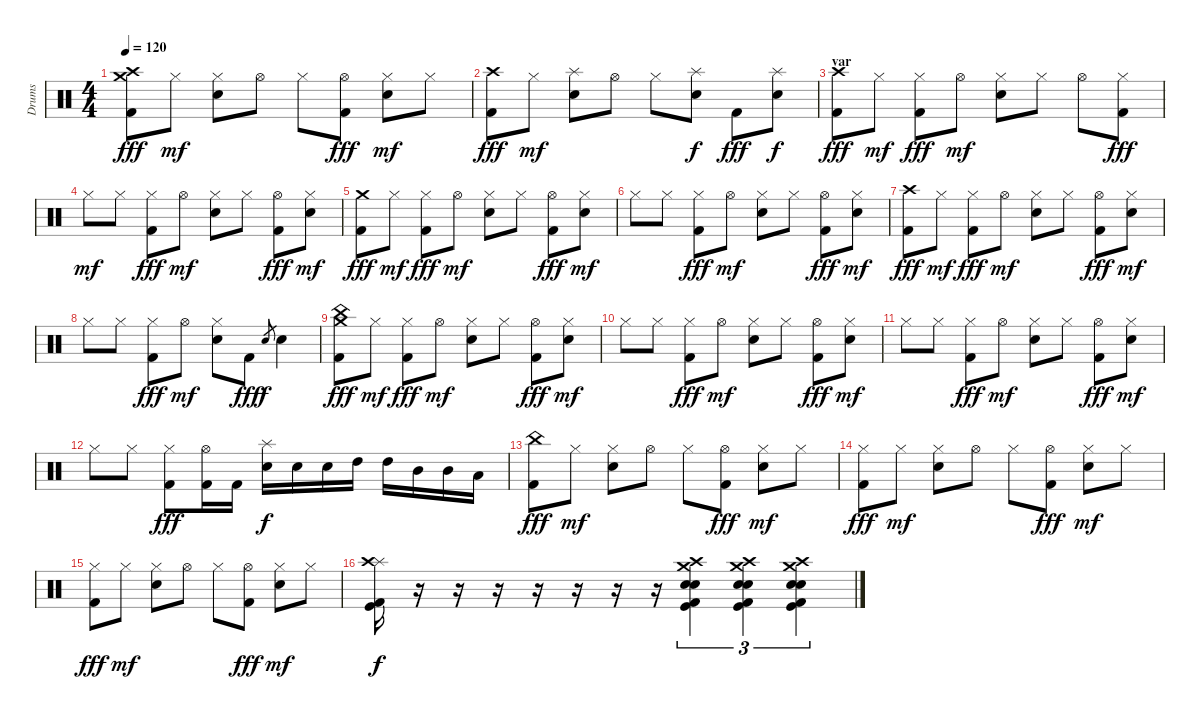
\track ("Drums" "Drums") {instrument percussion}
\staff {score}
\articulation defaults
\ts (4 4)
\tempo 120
\clef neutral
\ks c
("Crash medium (hit)" "Crash high (hit)" "Kick (hit) 2").8{dy fff} "Hi-Hat (closed)".8{dy mf} ("Hi-Hat (closed)" "Electric Snare (hit)").8 "Hi-Hat (open)".8 "Hi-Hat (closed)".8 ("Hi-Hat (open)" "Kick (hit) 2").8{dy fff} ("Hi-Hat (closed)" "Electric Snare (hit)").8{dy mf} "Hi-Hat (closed)".8 |
("Crash high (hit)" "Kick (hit) 2").8{dy fff} "Hi-Hat (closed)".8{dy mf} ("Splash (hit)" "Electric Snare (hit)").8 "Hi-Hat (open)".8 "Hi-Hat (closed)".8 ("Splash (hit)" "Electric Snare (hit)").8{dy f} "Kick (hit) 2".8{dy fff} ("Splash (hit)" "Electric Snare (hit)").8{dy f} |
\section ("" "var")
("Crash high (hit)" "Kick (hit) 2").8{dy fff} "Hi-Hat (closed)".8{dy mf} ("Hi-Hat (closed)" "Kick (hit) 2").8{dy fff} "Hi-Hat (open)".8{dy mf} ("Hi-Hat (closed)" "Electric Snare (hit)").8 "Hi-Hat (closed)".8 "Hi-Hat (open)".8 ("Hi-Hat (closed)" "Kick (hit) 2").8{dy fff} |
"Hi-Hat (closed)".8{dy mf} "Hi-Hat (closed)".8 ("Hi-Hat (closed)" "Kick (hit) 2").8{dy fff} "Hi-Hat (open)".8{dy mf} ("Hi-Hat (closed)" "Electric Snare (hit)").8 "Hi-Hat (closed)".8 ("Hi-Hat (open)" "Kick (hit) 2").8{dy fff} ("Hi-Hat (closed)" "Electric Snare (hit)").8{dy mf} |
("Crash medium (hit)" "Kick (hit) 2").8{dy fff} "Hi-Hat (closed)".8{dy mf} ("Hi-Hat (closed)" "Kick (hit) 2").8{dy fff} "Hi-Hat (open)".8{dy mf} ("Hi-Hat (closed)" "Electric Snare (hit)").8 "Hi-Hat (closed)".8 ("Hi-Hat (open)" "Kick (hit) 2").8{dy fff} ("Hi-Hat (closed)" "Electric Snare (hit)").8{dy mf} |
"Hi-Hat (closed)".8 "Hi-Hat (closed)".8 ("Hi-Hat (closed)" "Kick (hit) 2").8{dy fff} "Hi-Hat (open)".8{dy mf} ("Hi-Hat (closed)" "Electric Snare (hit)").8 "Hi-Hat (closed)".8 ("Hi-Hat (open)" "Kick (hit) 2").8{dy fff} ("Hi-Hat (closed)" "Electric Snare (hit)").8{dy mf} |
("Crash high (hit)" "Kick (hit) 2").8{dy fff} "Hi-Hat (closed)".8{dy mf} ("Hi-Hat (closed)" "Kick (hit) 2").8{dy fff} "Hi-Hat (open)".8{dy mf} ("Hi-Hat (closed)" "Electric Snare (hit)").8 "Hi-Hat (closed)".8 ("Hi-Hat (open)" "Kick (hit) 2").8{dy fff} ("Hi-Hat (closed)" "Electric Snare (hit)").8{dy mf} |
"Hi-Hat (closed)".8 "Hi-Hat (closed)".8 ("Hi-Hat (closed)" "Kick (hit) 2").8{dy fff} "Hi-Hat (open)".8{dy mf} ("Hi-Hat (closed)" "Electric Snare (hit)").8 "Kick (hit) 2".8{dy fff} "Electric Snare (hit)".8{gr dy f} "Electric Snare (hit)".4 |
("Crash medium (hit)" "China (hit)" "Kick (hit) 2").8{dy fff} "Hi-Hat (closed)".8{dy mf} ("Hi-Hat (closed)" "Kick (hit) 2").8{dy fff} "Hi-Hat (open)".8{dy mf} ("Hi-Hat (closed)" "Electric Snare (hit)").8 "Hi-Hat (closed)".8 ("Hi-Hat (open)" "Kick (hit) 2").8{dy fff} ("Hi-Hat (closed)" "Electric Snare (hit)").8{dy mf} |
"Hi-Hat (closed)".8 "Hi-Hat (closed)".8 ("Hi-Hat (closed)" "Kick (hit) 2").8{dy fff} "Hi-Hat (open)".8{dy mf} ("Hi-Hat (closed)" "Electric Snare (hit)").8 "Hi-Hat (closed)".8 ("Hi-Hat (open)" "Kick (hit) 2").8{dy fff} ("Hi-Hat (closed)" "Electric Snare (hit)").8{dy mf} |
"Hi-Hat (closed)".8 "Hi-Hat (closed)".8 ("Hi-Hat (closed)" "Kick (hit) 2").8{dy fff} "Hi-Hat (open)".8{dy mf} ("Hi-Hat (closed)" "Electric Snare (hit)").8 "Hi-Hat (closed)".8 ("Hi-Hat (open)" "Kick (hit) 2").8{dy fff} ("Hi-Hat (closed)" "Electric Snare (hit)").8{dy mf} |
"Hi-Hat (closed)".8 "Hi-Hat (closed)".8 ("Hi-Hat (closed)" "Kick (hit) 2").8{dy fff} ("Hi-Hat (open)" "Kick (hit) 2").16 "Kick (hit) 2".16 ("Splash (hit)" "Electric Snare (hit)").16{dy f} "Electric Snare (hit)".16 "Electric Snare (hit)".16 "High Tom (hit)".16 "High Tom (hit)".16 "Mid Tom (hit)".16 "Mid Tom (hit)".16 "Low Tom (hit)".16 |
("China (hit)" "Kick (hit) 2").8{dy fff} "Hi-Hat (closed)".8{dy mf} ("Hi-Hat (closed)" "Electric Snare (hit)").8 "Hi-Hat (open)".8 "Hi-Hat (closed)".8 ("Hi-Hat (open)" "Kick (hit) 2").8{dy fff} ("Hi-Hat (closed)" "Electric Snare (hit)").8{dy mf} "Hi-Hat (closed)".8 |
("Hi-Hat (closed)" "Kick (hit) 2").8{dy fff} "Hi-Hat (closed)".8{dy mf} ("Hi-Hat (closed)" "Electric Snare (hit)").8 "Hi-Hat (open)".8 "Hi-Hat (closed)".8 ("Hi-Hat (open)" "Kick (hit) 2").8{dy fff} ("Hi-Hat (closed)" "Electric Snare (hit)").8{dy mf} "Hi-Hat (closed)".8 |
("Hi-Hat (closed)" "Kick (hit) 2").8{dy fff} "Hi-Hat (closed)".8{dy mf} ("Hi-Hat (closed)" "Electric Snare (hit)").8 "Hi-Hat (open)".8 "Hi-Hat (closed)".8 ("Hi-Hat (open)" "Kick (hit) 2").8{dy fff} ("Hi-Hat (closed)" "Electric Snare (hit)").8{dy mf} "Hi-Hat (closed)".8 |
("Kick (hit) 2" "Kick (hit)" "Splash (hit)" "Crash high (hit)").16{dy f} r.16 r.16 r.16 r.16 r.16 r.16 r.16 ("Kick (hit) 2" "Kick (hit)" "Electric Snare (hit)" "Snare (hit) 2" "Crash high (hit)" "Crash medium (hit)").4{tu (3 2) bu 60} ("Kick (hit) 2" "Kick (hit)" "Electric Snare (hit)" "Snare (hit) 2" "Crash high (hit)" "Crash medium (hit)").4{tu (3 2) bu 60} ("Kick (hit) 2" "Kick (hit)" "Electric Snare (hit)" "Snare (hit) 2" "Crash high (hit)" "Crash medium (hit)").4{tu (3 2) bu 60}
